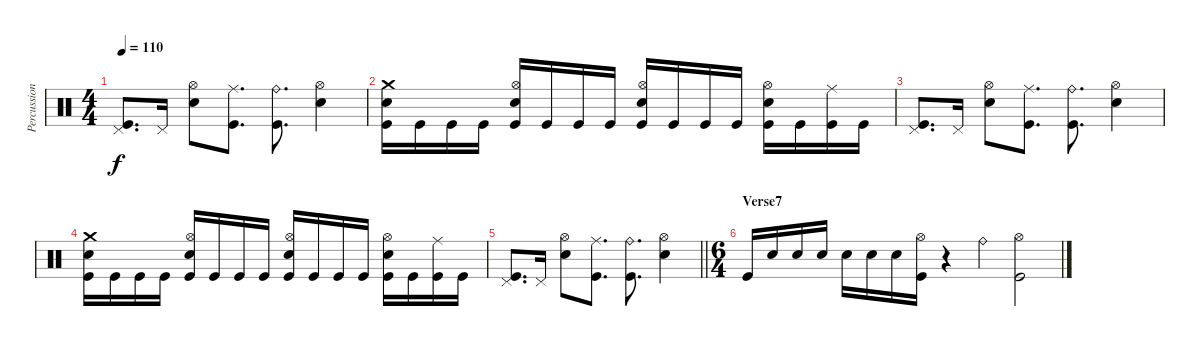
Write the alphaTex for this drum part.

\track ("Percussions" "Percussion") {instrument percussion}
\staff {score}
\articulation defaults
\ts (4 4)
\tempo 110
\clef neutral
\ks c
("Pedal Hi-Hat (hit)" "Kick (hit)").8{d dy f} "Pedal Hi-Hat (hit)".16 ("Hi-Hat (open)" "Electric Snare (hit)").8 ("Ride (middle)" "Kick (hit)").8{d} ("Ride (bell)" "Kick (hit)").8{d} ("Hi-Hat (open)" "Electric Snare (hit)").4 |
("Crash medium (hit)" "Electric Snare (hit)" "Kick (hit)").16 "Kick (hit)".16 "Kick (hit)".16 "Kick (hit)".16 ("Hi-Hat (open)" "Electric Snare (hit)" "Kick (hit)").16 "Kick (hit)".16 "Kick (hit)".16 "Kick (hit)".16 ("Hi-Hat (open)" "Electric Snare (hit)" "Kick (hit)").16 "Kick (hit)".16 "Kick (hit)".16 "Kick (hit)".16 ("Hi-Hat (open)" "Electric Snare (hit)" "Kick (hit)").16 "Kick (hit)".16 ("Ride (middle)" "Kick (hit)").16 "Kick (hit)".16 |
("Pedal Hi-Hat (hit)" "Kick (hit)").8{d} "Pedal Hi-Hat (hit)".16 ("Hi-Hat (open)" "Electric Snare (hit)").8 ("Ride (middle)" "Kick (hit)").8{d} ("Ride (bell)" "Kick (hit)").8{d} ("Hi-Hat (open)" "Electric Snare (hit)").4 |
("Crash medium (hit)" "Electric Snare (hit)" "Kick (hit)").16 "Kick (hit)".16 "Kick (hit)".16 "Kick (hit)".16 ("Hi-Hat (open)" "Electric Snare (hit)" "Kick (hit)").16 "Kick (hit)".16 "Kick (hit)".16 "Kick (hit)".16 ("Hi-Hat (open)" "Electric Snare (hit)" "Kick (hit)").16 "Kick (hit)".16 "Kick (hit)".16 "Kick (hit)".16 ("Hi-Hat (open)" "Electric Snare (hit)" "Kick (hit)").16 "Kick (hit)".16 ("Ride (middle)" "Kick (hit)").16 "Kick (hit)".16 |
\barLineRight lightlight
("Pedal Hi-Hat (hit)" "Kick (hit)").8{d} "Pedal Hi-Hat (hit)".16 ("Hi-Hat (open)" "Electric Snare (hit)").8 ("Ride (middle)" "Kick (hit)").8{d} ("Ride (bell)" "Kick (hit)").8{d} ("Hi-Hat (open)" "Electric Snare (hit)").4 |
\ts (6 4)
\section ("" "Verse7")
"Kick (hit)".16 "Electric Snare (hit)".16 "Electric Snare (hit)".16 "Electric Snare (hit)".16 "Electric Snare (hit)".16 "Electric Snare (hit)".16 "Electric Snare (hit)".16 ("Hi-Hat (open)" "Kick (hit)").16 r.4 "Ride (bell)".4 ("Hi-Hat (open)" "Kick (hit)").2
